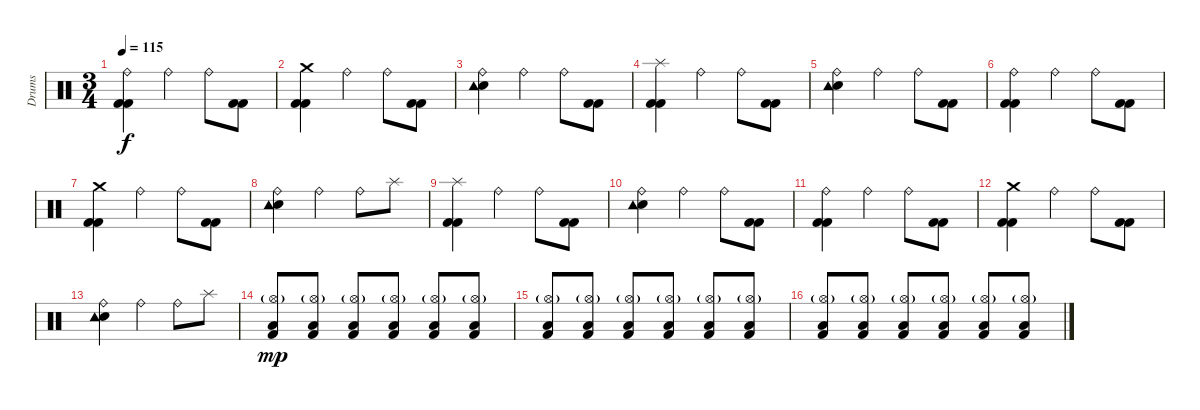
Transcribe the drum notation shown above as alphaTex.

\track ("Drums" "Drums") {instrument percussion}
\staff {score}
\articulation defaults
\ts (3 4)
\tempo 115
\clef neutral
\ks c
("Ride (bell)" "Kick (hit) 2" "Kick (hit) 2").4{dy f} "Ride (bell)".4 "Ride (bell)".8 ("Kick (hit) 2" "Kick (hit) 2").8 |
("Crash medium (hit)" "Kick (hit) 2" "Kick (hit) 2").4 "Ride (bell)".4 "Ride (bell)".8 ("Kick (hit) 2" "Kick (hit) 2").8 |
("Ride (bell)" "Electric Snare (hit)" "Tambourine (hit)").4 "Ride (bell)".4 "Ride (bell)".8 ("Kick (hit) 2" "Kick (hit) 2").8 |
("Splash (hit)" "Kick (hit) 2" "Kick (hit) 2").4 "Ride (bell)".4 "Ride (bell)".8 ("Kick (hit) 2" "Kick (hit) 2").8 |
("Ride (bell)" "Electric Snare (hit)" "Tambourine (hit)").4 "Ride (bell)".4 "Ride (bell)".8 ("Kick (hit) 2" "Kick (hit) 2").8 |
("Ride (bell)" "Kick (hit) 2" "Kick (hit) 2").4 "Ride (bell)".4 "Ride (bell)".8 ("Kick (hit) 2" "Kick (hit) 2").8 |
("Crash medium (hit)" "Kick (hit) 2" "Kick (hit) 2").4 "Ride (bell)".4 "Ride (bell)".8 ("Kick (hit) 2" "Kick (hit) 2").8 |
("Ride (bell)" "Electric Snare (hit)" "Tambourine (hit)").4 "Ride (bell)".4 "Ride (bell)".8 "Splash (hit)".8 |
("Splash (hit)" "Kick (hit) 2" "Kick (hit) 2").4 "Ride (bell)".4 "Ride (bell)".8 ("Kick (hit) 2" "Kick (hit) 2").8 |
("Ride (bell)" "Electric Snare (hit)" "Tambourine (hit)").4 "Ride (bell)".4 "Ride (bell)".8 ("Kick (hit) 2" "Kick (hit) 2").8 |
("Ride (bell)" "Kick (hit) 2" "Kick (hit) 2").4 "Ride (bell)".4 "Ride (bell)".8 ("Kick (hit) 2" "Kick (hit) 2").8 |
("Crash medium (hit)" "Kick (hit) 2" "Kick (hit) 2").4 "Ride (bell)".4 "Ride (bell)".8 ("Kick (hit) 2" "Kick (hit) 2").8 |
("Ride (bell)" "Electric Snare (hit)" "Tambourine (hit)").4 "Ride (bell)".4 "Ride (bell)".8 "Splash (hit)".8 |
("Hi-Hat (open)"{g} "Low Tom (hit)" "Kick (hit) 2").8{dy mp} ("Hi-Hat (open)"{g} "Low Tom (hit)" "Kick (hit) 2").8 ("Hi-Hat (open)"{g} "Low Tom (hit)" "Kick (hit) 2").8 ("Hi-Hat (open)"{g} "Low Tom (hit)" "Kick (hit) 2").8 ("Hi-Hat (open)"{g} "Low Tom (hit)" "Kick (hit) 2").8 ("Hi-Hat (open)"{g} "Low Tom (hit)" "Kick (hit) 2").8 |
("Hi-Hat (open)"{g} "Low Tom (hit)" "Kick (hit) 2").8 ("Hi-Hat (open)"{g} "Low Tom (hit)" "Kick (hit) 2").8 ("Hi-Hat (open)"{g} "Low Tom (hit)" "Kick (hit) 2").8 ("Hi-Hat (open)"{g} "Low Tom (hit)" "Kick (hit) 2").8 ("Hi-Hat (open)"{g} "Low Tom (hit)" "Kick (hit) 2").8 ("Hi-Hat (open)"{g} "Low Tom (hit)" "Kick (hit) 2").8 |
("Hi-Hat (open)"{g} "Low Tom (hit)" "Kick (hit) 2").8 ("Hi-Hat (open)"{g} "Low Tom (hit)" "Kick (hit) 2").8 ("Hi-Hat (open)"{g} "Low Tom (hit)" "Kick (hit) 2").8 ("Hi-Hat (open)"{g} "Low Tom (hit)" "Kick (hit) 2").8 ("Hi-Hat (open)"{g} "Low Tom (hit)" "Kick (hit) 2").8 ("Hi-Hat (open)"{g} "Low Tom (hit)" "Kick (hit) 2").8
